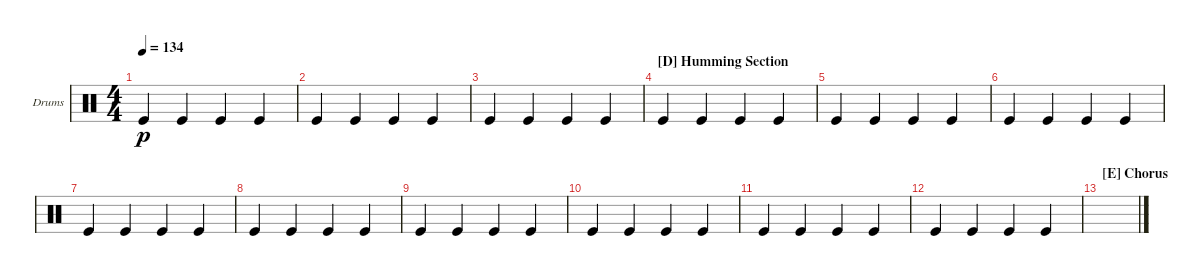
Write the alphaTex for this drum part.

\defaultSystemsLayout 4
\bracketExtendMode groupsimilarinstruments
\firstSystemTrackNameOrientation horizontal
\otherSystemsTrackNameOrientation horizontal
\track ("Bass Drum" "Drums") {instrument percussion}
\staff {score}
\articulation defaults
\ts (4 4)
\tempo 134
\clef neutral
\ks c "Kick (hit)".4{dy p} "Kick (hit)".4 "Kick (hit)".4 "Kick (hit)".4
|
"Kick (hit)".4 "Kick (hit)".4 "Kick (hit)".4 "Kick (hit)".4 |
"Kick (hit)".4 "Kick (hit)".4 "Kick (hit)".4 "Kick (hit)".4 |
\section ("D" "Humming Section")
"Kick (hit)".4 "Kick (hit)".4 "Kick (hit)".4 "Kick (hit)".4 |
"Kick (hit)".4 "Kick (hit)".4 "Kick (hit)".4 "Kick (hit)".4 |
"Kick (hit)".4 "Kick (hit)".4 "Kick (hit)".4 "Kick (hit)".4 |
"Kick (hit)".4 "Kick (hit)".4 "Kick (hit)".4 "Kick (hit)".4 |
"Kick (hit)".4 "Kick (hit)".4 "Kick (hit)".4 "Kick (hit)".4 |
"Kick (hit)".4 "Kick (hit)".4 "Kick (hit)".4 "Kick (hit)".4 |
"Kick (hit)".4 "Kick (hit)".4 "Kick (hit)".4 "Kick (hit)".4 |
"Kick (hit)".4 "Kick (hit)".4 "Kick (hit)".4 "Kick (hit)".4 |
"Kick (hit)".4 "Kick (hit)".4 "Kick (hit)".4 "Kick (hit)".4 |
\section ("E" "Chorus")
